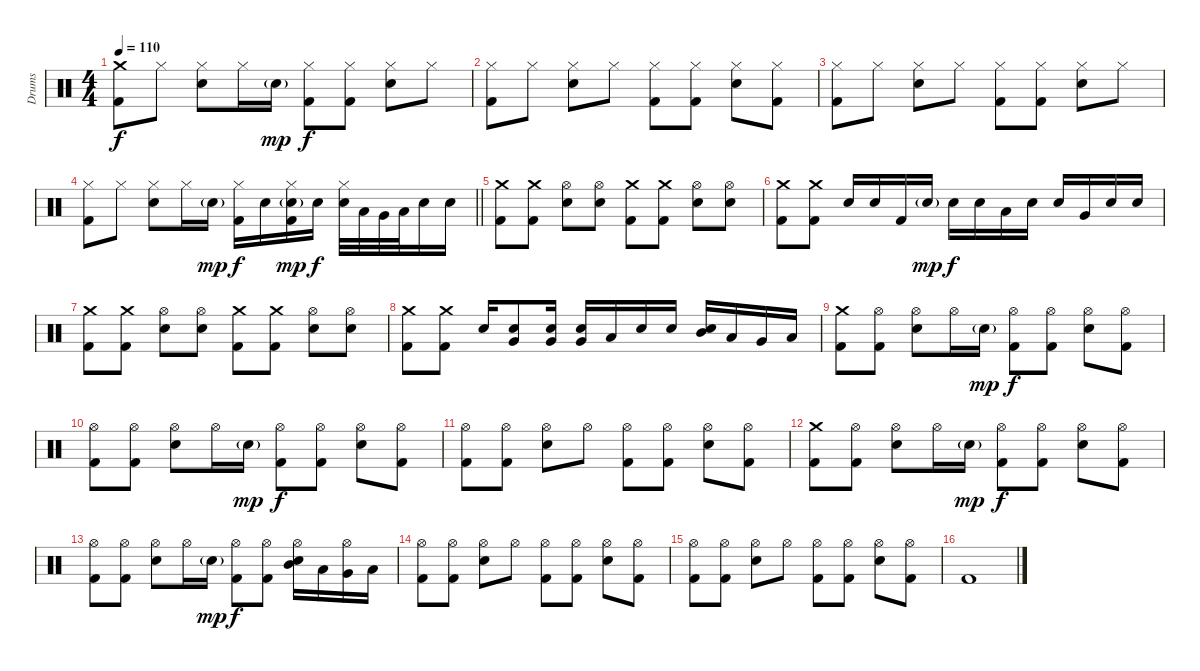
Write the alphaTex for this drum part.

\track ("Drums" "Drums") {instrument percussion}
\staff {score}
\articulation defaults
\ts (4 4)
\tempo 110
\clef neutral
\ks c
("Crash medium (hit)" "Kick (hit) 2").8{dy f} "Hi-Hat (closed)".8 ("Hi-Hat (closed)" "Electric Snare (hit)").8 "Hi-Hat (closed)".16 "Electric Snare (hit)"{g}.16{dy mp} ("Hi-Hat (closed)" "Kick (hit) 2").8{dy f} ("Hi-Hat (closed)" "Kick (hit) 2").8 ("Hi-Hat (closed)" "Electric Snare (hit)").8 "Hi-Hat (closed)".8 |
("Hi-Hat (closed)" "Kick (hit) 2").8 "Hi-Hat (closed)".8 ("Hi-Hat (closed)" "Electric Snare (hit)").8 "Hi-Hat (closed)".8 ("Hi-Hat (closed)" "Kick (hit) 2").8 ("Hi-Hat (closed)" "Kick (hit) 2").8 ("Hi-Hat (closed)" "Electric Snare (hit)").8 ("Hi-Hat (closed)" "Kick (hit) 2").8 |
("Hi-Hat (closed)" "Kick (hit) 2").8 "Hi-Hat (closed)".8 ("Hi-Hat (closed)" "Electric Snare (hit)").8 "Hi-Hat (closed)".8 ("Hi-Hat (closed)" "Kick (hit) 2").8 ("Hi-Hat (closed)" "Kick (hit) 2").8 ("Hi-Hat (closed)" "Electric Snare (hit)").8 "Hi-Hat (closed)".8 |
\barLineRight lightlight
("Hi-Hat (closed)" "Kick (hit) 2").8 "Hi-Hat (closed)".8 ("Hi-Hat (closed)" "Electric Snare (hit)").8 "Hi-Hat (closed)".16 "Electric Snare (hit)"{g}.16{dy mp} ("Hi-Hat (closed)" "Kick (hit) 2").16{dy f} "Electric Snare (hit)".16 ("Hi-Hat (closed)" "Electric Snare (hit)"{g} "Kick (hit) 2").16{dy mp} "Electric Snare (hit)".16{dy f} ("Hi-Hat (closed)" "Electric Snare (hit)").32 "Low Tom (hit)".32 "Very Low Tom (hit)".32 "Low Floor Tom (hit)".32 "Electric Snare (hit)".16 "Electric Snare (hit)".16 |
("Crash medium (hit)" "Kick (hit) 2").8 ("Crash medium (hit)" "Kick (hit) 2").8 ("Hi-Hat (open)" "Electric Snare (hit)").8 ("Hi-Hat (open)" "Electric Snare (hit)").8 ("Crash medium (hit)" "Kick (hit) 2").8 ("Crash medium (hit)" "Kick (hit) 2").8 ("Hi-Hat (open)" "Electric Snare (hit)").8 ("Hi-Hat (open)" "Electric Snare (hit)").8 |
("Crash medium (hit)" "Kick (hit) 2").8 ("Crash medium (hit)" "Kick (hit) 2").8 "Electric Snare (hit)".16 "Electric Snare (hit)".16 "Kick (hit) 2".16 "Electric Snare (hit)"{g}.16{dy mp} "Electric Snare (hit)".16{dy f} "Electric Snare (hit)".16 "Low Tom (hit)".16 "Electric Snare (hit)".16 "Electric Snare (hit)".16 "Very Low Tom (hit)".16 "Electric Snare (hit)".16 "Electric Snare (hit)".16 |
("Crash medium (hit)" "Kick (hit) 2").8 ("Crash medium (hit)" "Kick (hit) 2").8 ("Hi-Hat (open)" "Electric Snare (hit)").8 ("Hi-Hat (open)" "Electric Snare (hit)").8 ("Crash medium (hit)" "Kick (hit) 2").8 ("Crash medium (hit)" "Kick (hit) 2").8 ("Hi-Hat (open)" "Electric Snare (hit)").8 ("Hi-Hat (open)" "Electric Snare (hit)").8 |
("Crash medium (hit)" "Kick (hit) 2").8 ("Crash medium (hit)" "Kick (hit) 2").8 "Electric Snare (hit)".16 ("Very Low Tom (hit)" "Electric Snare (hit)").8 ("Very Low Tom (hit)" "Electric Snare (hit)").16 ("Very Low Tom (hit)" "Electric Snare (hit)").16 "Low Floor Tom (hit)".16 "Electric Snare (hit)".16 "Electric Snare (hit)".16 ("Mid Tom (hit)" "Electric Snare (hit)").16 "Low Tom (hit)".16 "Very Low Tom (hit)".16 "Low Floor Tom (hit)".16 |
("Crash medium (hit)" "Kick (hit) 2").8 ("Hi-Hat (open)" "Kick (hit) 2").8 ("Hi-Hat (open)" "Electric Snare (hit)").8 "Hi-Hat (open)".16 "Electric Snare (hit)"{g}.16{dy mp} ("Hi-Hat (open)" "Kick (hit) 2").8{dy f} ("Hi-Hat (open)" "Kick (hit) 2").8 ("Hi-Hat (open)" "Electric Snare (hit)").8 ("Hi-Hat (open)" "Kick (hit) 2").8 |
("Hi-Hat (open)" "Kick (hit) 2").8 ("Hi-Hat (open)" "Kick (hit) 2").8 ("Hi-Hat (open)" "Electric Snare (hit)").8 "Hi-Hat (open)".16 "Electric Snare (hit)"{g}.16{dy mp} ("Hi-Hat (open)" "Kick (hit) 2").8{dy f} ("Hi-Hat (open)" "Kick (hit) 2").8 ("Hi-Hat (open)" "Electric Snare (hit)").8 ("Hi-Hat (open)" "Kick (hit) 2").8 |
("Hi-Hat (open)" "Kick (hit) 2").8 ("Hi-Hat (open)" "Kick (hit) 2").8 ("Hi-Hat (open)" "Electric Snare (hit)").8 "Hi-Hat (open)".8 ("Hi-Hat (open)" "Kick (hit) 2").8 ("Hi-Hat (open)" "Kick (hit) 2").8 ("Hi-Hat (open)" "Electric Snare (hit)").8 ("Hi-Hat (open)" "Kick (hit) 2").8 |
("Crash medium (hit)" "Kick (hit) 2").8 ("Hi-Hat (open)" "Kick (hit) 2").8 ("Hi-Hat (open)" "Electric Snare (hit)").8 "Hi-Hat (open)".16 "Electric Snare (hit)"{g}.16{dy mp} ("Hi-Hat (open)" "Kick (hit) 2").8{dy f} ("Hi-Hat (open)" "Kick (hit) 2").8 ("Hi-Hat (open)" "Electric Snare (hit)").8 ("Hi-Hat (open)" "Kick (hit) 2").8 |
("Hi-Hat (open)" "Kick (hit) 2").8 ("Hi-Hat (open)" "Kick (hit) 2").8 ("Hi-Hat (open)" "Electric Snare (hit)").8 "Hi-Hat (open)".16 "Electric Snare (hit)"{g}.16{dy mp} ("Hi-Hat (open)" "Kick (hit) 2").8{dy f} ("Hi-Hat (open)" "Kick (hit) 2").8 ("Hi-Hat (open)" "Mid Tom (hit)" "Electric Snare (hit)").16 "Low Tom (hit)".16 ("Hi-Hat (open)" "Very Low Tom (hit)").16 "Low Floor Tom (hit)".16 |
("Hi-Hat (open)" "Kick (hit) 2").8 ("Hi-Hat (open)" "Kick (hit) 2").8 ("Hi-Hat (open)" "Electric Snare (hit)").8 "Hi-Hat (open)".8 ("Hi-Hat (open)" "Kick (hit) 2").8 ("Hi-Hat (open)" "Kick (hit) 2").8 ("Hi-Hat (open)" "Electric Snare (hit)").8 ("Hi-Hat (open)" "Kick (hit) 2").8 |
("Hi-Hat (open)" "Kick (hit) 2").8 ("Hi-Hat (open)" "Kick (hit) 2").8 ("Hi-Hat (open)" "Electric Snare (hit)").8 "Hi-Hat (open)".8 ("Hi-Hat (open)" "Kick (hit) 2").8 ("Hi-Hat (open)" "Kick (hit) 2").8 ("Hi-Hat (open)" "Electric Snare (hit)").8 ("Hi-Hat (open)" "Kick (hit) 2").8 |
"Kick (hit) 2".1
